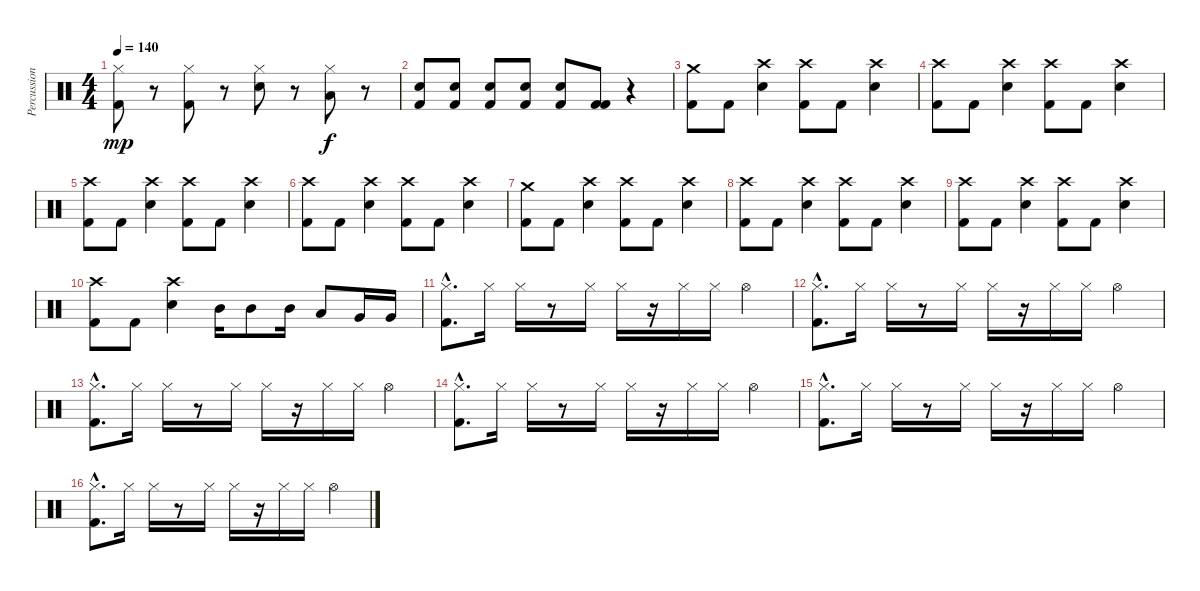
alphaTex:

\track ("Percussion" "Percussion") {instrument percussion}
\staff {score}
\articulation defaults
\ts (4 4)
\tempo 140
\clef neutral
\ks c
("Hi-Hat (closed)" "Kick (hit) 2").8{dy mp} r.8 ("Hi-Hat (closed)" "Kick (hit) 2").8 r.8 ("Hi-Hat (closed)" "Snare (hit) 2").8 r.8 ("Hi-Hat (closed)" "Low Tom (hit)").8{dy f} r.8 |
("Electric Snare (hit)" "Kick (hit) 2").8 ("Electric Snare (hit)" "Kick (hit) 2").8 ("Electric Snare (hit)" "Kick (hit) 2").8 ("Electric Snare (hit)" "Kick (hit) 2").8 ("Electric Snare (hit)" "Kick (hit) 2").8 ("Kick (hit) 2" "Kick (hit) 2").8 r.4 |
("Crash medium (hit)" "Kick (hit) 2").8 "Kick (hit) 2".8 ("Crash high (hit)" "Electric Snare (hit)").4 ("Crash high (hit)" "Kick (hit) 2").8 "Kick (hit) 2".8 ("Crash high (hit)" "Electric Snare (hit)").4 |
("Crash high (hit)" "Kick (hit) 2").8 "Kick (hit) 2".8 ("Crash high (hit)" "Electric Snare (hit)").4 ("Crash high (hit)" "Kick (hit) 2").8 "Kick (hit) 2".8 ("Crash high (hit)" "Electric Snare (hit)").4 |
("Crash high (hit)" "Kick (hit) 2").8 "Kick (hit) 2".8 ("Crash high (hit)" "Electric Snare (hit)").4 ("Crash high (hit)" "Kick (hit) 2").8 "Kick (hit) 2".8 ("Crash high (hit)" "Electric Snare (hit)").4 |
("Crash high (hit)" "Kick (hit) 2").8 "Kick (hit) 2".8 ("Crash high (hit)" "Electric Snare (hit)").4 ("Crash high (hit)" "Kick (hit) 2").8 "Kick (hit) 2".8 ("Crash high (hit)" "Electric Snare (hit)").4 |
("Crash medium (hit)" "Kick (hit) 2").8 "Kick (hit) 2".8 ("Crash high (hit)" "Electric Snare (hit)").4 ("Crash high (hit)" "Kick (hit) 2").8 "Kick (hit) 2".8 ("Crash high (hit)" "Electric Snare (hit)").4 |
("Crash high (hit)" "Kick (hit) 2").8 "Kick (hit) 2".8 ("Crash high (hit)" "Electric Snare (hit)").4 ("Crash high (hit)" "Kick (hit) 2").8 "Kick (hit) 2".8 ("Crash high (hit)" "Electric Snare (hit)").4 |
("Crash high (hit)" "Kick (hit) 2").8 "Kick (hit) 2".8 ("Crash high (hit)" "Electric Snare (hit)").4 ("Crash high (hit)" "Kick (hit) 2").8 "Kick (hit) 2".8 ("Crash high (hit)" "Electric Snare (hit)").4 |
("Crash high (hit)" "Kick (hit) 2").8 "Kick (hit) 2".8 ("Crash high (hit)" "Electric Snare (hit)").4 "Mid Tom (hit)".16 "Mid Tom (hit)".8 "Mid Tom (hit)".16 "Low Tom (hit)".8 "Very Low Tom (hit)".16 "Very Low Tom (hit)".16 |
("Hi-Hat (closed)"{hac} "Kick (hit) 2"{hac}).8{d} "Hi-Hat (closed)".16 "Hi-Hat (closed)".16 r.8 "Hi-Hat (closed)".16 "Hi-Hat (closed)".16 r.16 "Hi-Hat (closed)".16 "Hi-Hat (closed)".16 "Hi-Hat (open)".4 |
("Hi-Hat (closed)"{hac} "Kick (hit) 2"{hac}).8{d} "Hi-Hat (closed)".16 "Hi-Hat (closed)".16 r.8 "Hi-Hat (closed)".16 "Hi-Hat (closed)".16 r.16 "Hi-Hat (closed)".16 "Hi-Hat (closed)".16 "Hi-Hat (open)".4 |
("Hi-Hat (closed)"{hac} "Kick (hit) 2"{hac}).8{d} "Hi-Hat (closed)".16 "Hi-Hat (closed)".16 r.8 "Hi-Hat (closed)".16 "Hi-Hat (closed)".16 r.16 "Hi-Hat (closed)".16 "Hi-Hat (closed)".16 "Hi-Hat (open)".4 |
("Hi-Hat (closed)"{hac} "Kick (hit) 2"{hac}).8{d} "Hi-Hat (closed)".16 "Hi-Hat (closed)".16 r.8 "Hi-Hat (closed)".16 "Hi-Hat (closed)".16 r.16 "Hi-Hat (closed)".16 "Hi-Hat (closed)".16 "Hi-Hat (open)".4 |
("Hi-Hat (closed)"{hac} "Kick (hit) 2"{hac}).8{d} "Hi-Hat (closed)".16 "Hi-Hat (closed)".16 r.8 "Hi-Hat (closed)".16 "Hi-Hat (closed)".16 r.16 "Hi-Hat (closed)".16 "Hi-Hat (closed)".16 "Hi-Hat (open)".4 |
("Hi-Hat (closed)"{hac} "Kick (hit) 2"{hac}).8{d} "Hi-Hat (closed)".16 "Hi-Hat (closed)".16 r.8 "Hi-Hat (closed)".16 "Hi-Hat (closed)".16 r.16 "Hi-Hat (closed)".16 "Hi-Hat (closed)".16 "Hi-Hat (open)".4
